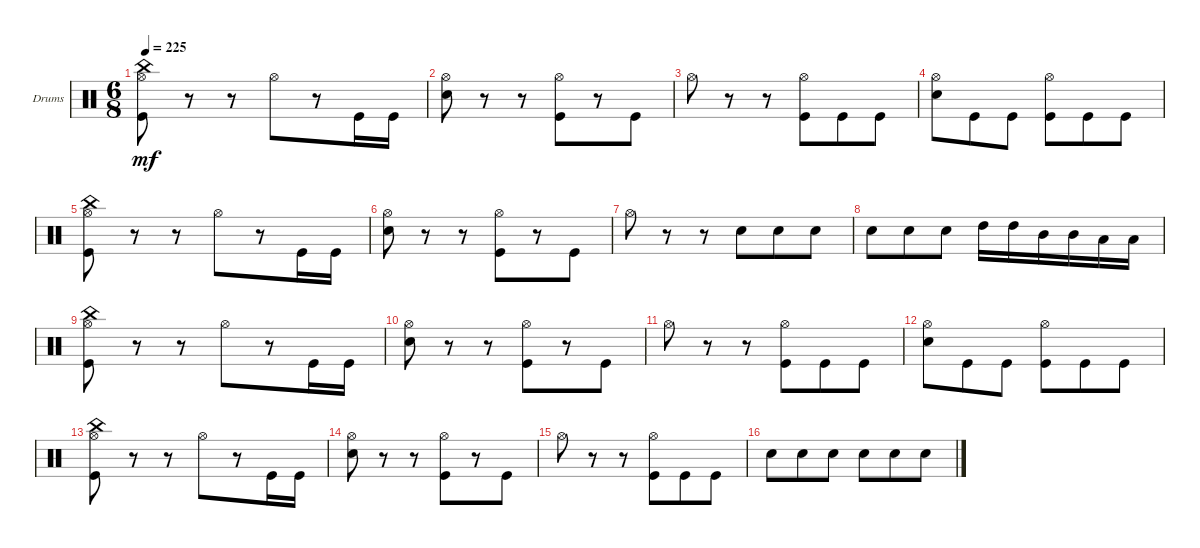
\bracketExtendMode groupsimilarinstruments
\firstSystemTrackNameOrientation horizontal
\otherSystemsTrackNameOrientation horizontal
\track ("Drumkit" "Drums") {instrument percussion}
\staff {score}
\articulation defaults
\ts (6 8)
\tempo 225
\clef neutral
\ks c
("Kick (hit)" "Hi-Hat (open)" "China (hit)").8{dy mf} r.8 r.8 "Hi-Hat (open)".8 r.8 "Kick (hit)".16 "Kick (hit)".16 |
("Snare (hit) 2" "Hi-Hat (open)").8 r.8 r.8 ("Kick (hit)" "Hi-Hat (open)").8 r.8 "Kick (hit)".8 |
"Hi-Hat (open)".8 r.8 r.8 ("Kick (hit)" "Hi-Hat (open)").8 "Kick (hit)".8 "Kick (hit)".8 |
("Snare (hit) 2" "Hi-Hat (open)").8 "Kick (hit)".8 "Kick (hit)".8 ("Kick (hit)" "Hi-Hat (open)").8 "Kick (hit)".8 "Kick (hit)".8 |
("Kick (hit)" "Hi-Hat (open)" "China (hit)").8 r.8 r.8 "Hi-Hat (open)".8 r.8 "Kick (hit)".16 "Kick (hit)".16 |
("Snare (hit) 2" "Hi-Hat (open)").8 r.8 r.8 ("Kick (hit)" "Hi-Hat (open)").8 r.8 "Kick (hit)".8 |
"Hi-Hat (open)".8 r.8 r.8 "Snare (hit) 2".8 "Snare (hit) 2".8 "Snare (hit) 2".8 |
"Snare (hit) 2".8 "Snare (hit) 2".8 "Snare (hit) 2".8 "High Tom (hit)".16 "High Tom (hit)".16 "Mid Tom (hit)".16 "Mid Tom (hit)".16 "Low Tom (hit)".16 "Low Tom (hit)".16 |
("Kick (hit)" "Hi-Hat (open)" "China (hit)").8 r.8 r.8 "Hi-Hat (open)".8 r.8 "Kick (hit)".16 "Kick (hit)".16 |
("Snare (hit) 2" "Hi-Hat (open)").8 r.8 r.8 ("Kick (hit)" "Hi-Hat (open)").8 r.8 "Kick (hit)".8 |
"Hi-Hat (open)".8 r.8 r.8 ("Kick (hit)" "Hi-Hat (open)").8 "Kick (hit)".8 "Kick (hit)".8 |
("Snare (hit) 2" "Hi-Hat (open)").8 "Kick (hit)".8 "Kick (hit)".8 ("Kick (hit)" "Hi-Hat (open)").8 "Kick (hit)".8 "Kick (hit)".8 |
("Kick (hit)" "Hi-Hat (open)" "China (hit)").8 r.8 r.8 "Hi-Hat (open)".8 r.8 "Kick (hit)".16 "Kick (hit)".16 |
("Snare (hit) 2" "Hi-Hat (open)").8 r.8 r.8 ("Kick (hit)" "Hi-Hat (open)").8 r.8 "Kick (hit)".8 |
"Hi-Hat (open)".8 r.8 r.8 ("Kick (hit)" "Hi-Hat (open)").8 "Kick (hit)".8 "Kick (hit)".8 |
"Snare (hit) 2".8 "Snare (hit) 2".8 "Snare (hit) 2".8 "Snare (hit) 2".8 "Snare (hit) 2".8 "Snare (hit) 2".8
